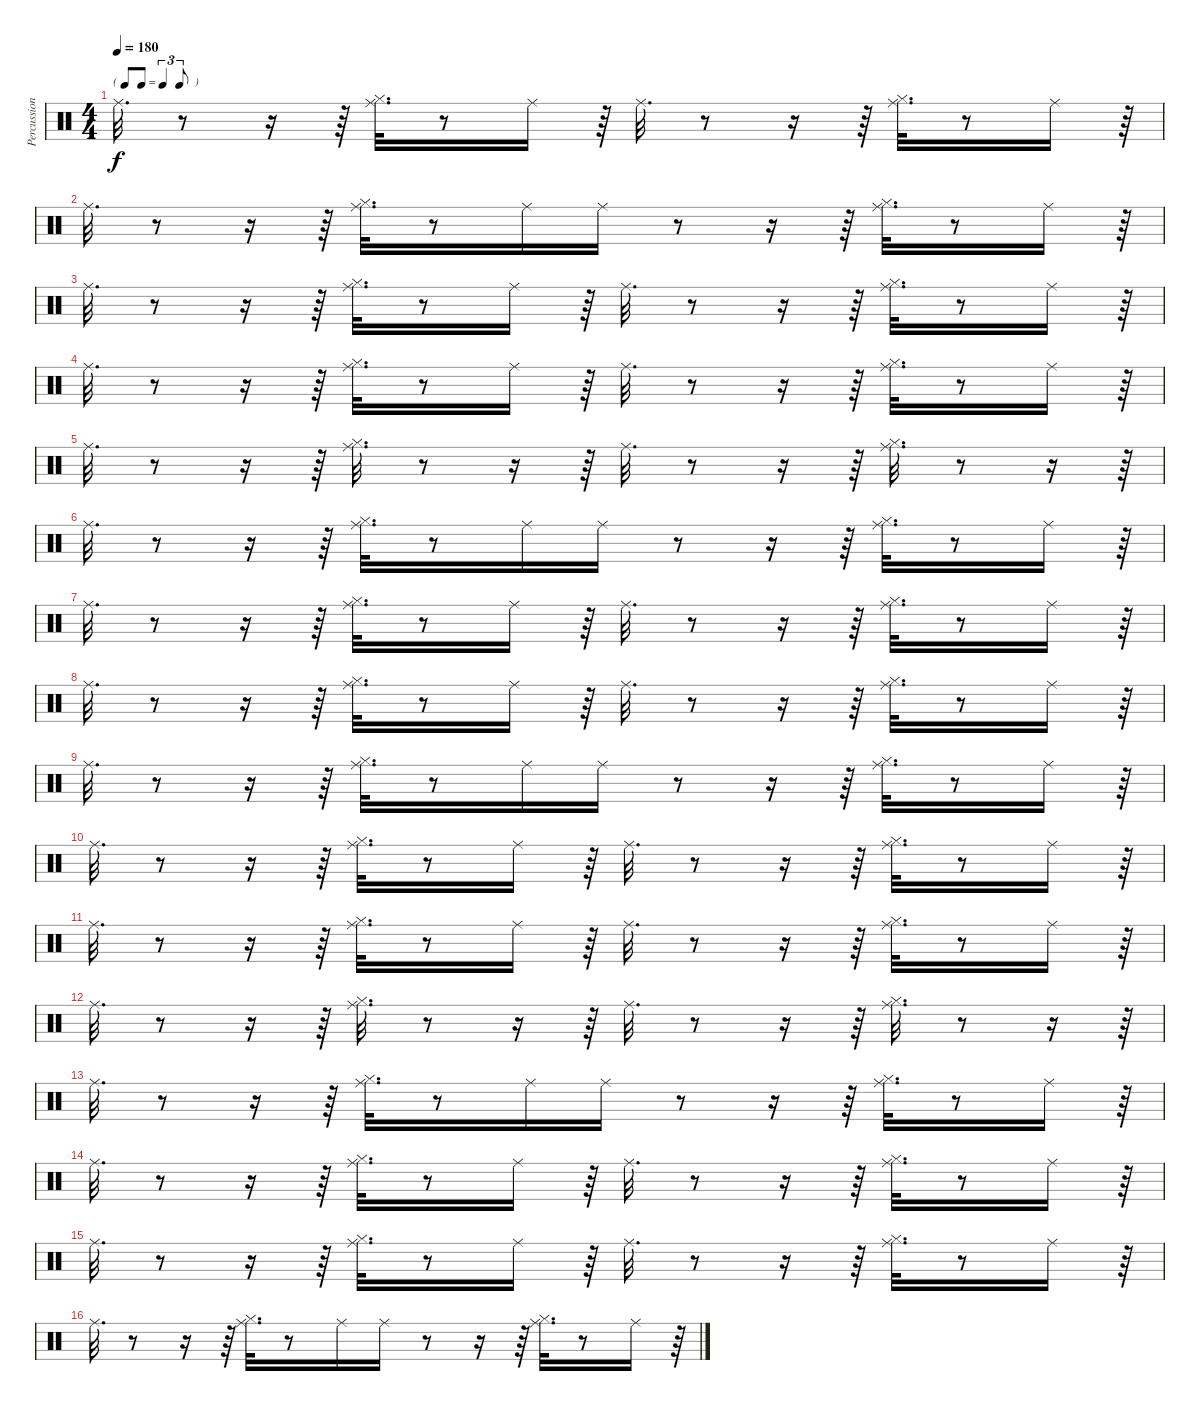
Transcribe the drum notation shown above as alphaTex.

\track ("Percussions" "Percussion") {instrument percussion}
\staff {score}
\articulation defaults
\ts (4 4)
\tf triplet8th
\tempo 180
\clef neutral
\ks c "Ride (middle)".32{d dy f}
r.8 r.16 r.64 ("Hi-Hat (closed)" "Ride (middle)").32{d} r.8 "Ride (middle)".16 r.64 "Ride (middle)".32{d} r.8 r.16 r.64 ("Hi-Hat (closed)" "Ride (middle)").32{d} r.8 "Ride (middle)".16 r.64 |
"Ride (middle)".32{d} r.8 r.16 r.64 ("Hi-Hat (closed)" "Ride (middle)").32{d} r.8 "Ride (middle)".16 "Ride (middle)".16 r.8 r.16 r.64 ("Hi-Hat (closed)" "Ride (middle)").32{d} r.8 "Ride (middle)".16 r.64 |
"Ride (middle)".32{d} r.8 r.16 r.64 ("Hi-Hat (closed)" "Ride (middle)").32{d} r.8 "Ride (middle)".16 r.64 "Ride (middle)".32{d} r.8 r.16 r.64 ("Hi-Hat (closed)" "Ride (middle)").32{d} r.8 "Ride (middle)".16 r.64 |
"Ride (middle)".32{d} r.8 r.16 r.64 ("Hi-Hat (closed)" "Ride (middle)").32{d} r.8 "Ride (middle)".16 r.64 "Ride (middle)".32{d} r.8 r.16 r.64 ("Hi-Hat (closed)" "Ride (middle)").32{d} r.8 "Ride (middle)".16 r.64 |
"Ride (middle)".32{d} r.8 r.16 r.64 ("Hi-Hat (closed)" "Ride (middle)").32{d} r.8 r.16 r.64 "Ride (middle)".32{d} r.8 r.16 r.64 ("Hi-Hat (closed)" "Ride (middle)").32{d} r.8 r.16 r.64 |
"Ride (middle)".32{d} r.8 r.16 r.64 ("Hi-Hat (closed)" "Ride (middle)").32{d} r.8 "Ride (middle)".16 "Ride (middle)".16 r.8 r.16 r.64 ("Hi-Hat (closed)" "Ride (middle)").32{d} r.8 "Ride (middle)".16 r.64 |
"Ride (middle)".32{d} r.8 r.16 r.64 ("Hi-Hat (closed)" "Ride (middle)").32{d} r.8 "Ride (middle)".16 r.64 "Ride (middle)".32{d} r.8 r.16 r.64 ("Hi-Hat (closed)" "Ride (middle)").32{d} r.8 "Ride (middle)".16 r.64 |
"Ride (middle)".32{d} r.8 r.16 r.64 ("Hi-Hat (closed)" "Ride (middle)").32{d} r.8 "Ride (middle)".16 r.64 "Ride (middle)".32{d} r.8 r.16 r.64 ("Hi-Hat (closed)" "Ride (middle)").32{d} r.8 "Ride (middle)".16 r.64 |
"Ride (middle)".32{d} r.8 r.16 r.64 ("Hi-Hat (closed)" "Ride (middle)").32{d} r.8 "Ride (middle)".16 "Ride (middle)".16 r.8 r.16 r.64 ("Hi-Hat (closed)" "Ride (middle)").32{d} r.8 "Ride (middle)".16 r.64 |
"Ride (middle)".32{d} r.8 r.16 r.64 ("Hi-Hat (closed)" "Ride (middle)").32{d} r.8 "Ride (middle)".16 r.64 "Ride (middle)".32{d} r.8 r.16 r.64 ("Hi-Hat (closed)" "Ride (middle)").32{d} r.8 "Ride (middle)".16 r.64 |
"Ride (middle)".32{d} r.8 r.16 r.64 ("Hi-Hat (closed)" "Ride (middle)").32{d} r.8 "Ride (middle)".16 r.64 "Ride (middle)".32{d} r.8 r.16 r.64 ("Hi-Hat (closed)" "Ride (middle)").32{d} r.8 "Ride (middle)".16 r.64 |
"Ride (middle)".32{d} r.8 r.16 r.64 ("Hi-Hat (closed)" "Ride (middle)").32{d} r.8 r.16 r.64 "Ride (middle)".32{d} r.8 r.16 r.64 ("Hi-Hat (closed)" "Ride (middle)").32{d} r.8 r.16 r.64 |
"Ride (middle)".32{d} r.8 r.16 r.64 ("Hi-Hat (closed)" "Ride (middle)").32{d} r.8 "Ride (middle)".16 "Ride (middle)".16 r.8 r.16 r.64 ("Hi-Hat (closed)" "Ride (middle)").32{d} r.8 "Ride (middle)".16 r.64 |
"Ride (middle)".32{d} r.8 r.16 r.64 ("Hi-Hat (closed)" "Ride (middle)").32{d} r.8 "Ride (middle)".16 r.64 "Ride (middle)".32{d} r.8 r.16 r.64 ("Hi-Hat (closed)" "Ride (middle)").32{d} r.8 "Ride (middle)".16 r.64 |
"Ride (middle)".32{d} r.8 r.16 r.64 ("Hi-Hat (closed)" "Ride (middle)").32{d} r.8 "Ride (middle)".16 r.64 "Ride (middle)".32{d} r.8 r.16 r.64 ("Hi-Hat (closed)" "Ride (middle)").32{d} r.8 "Ride (middle)".16 r.64 |
"Ride (middle)".32{d} r.8 r.16 r.64 ("Hi-Hat (closed)" "Ride (middle)").32{d} r.8 "Ride (middle)".16 "Ride (middle)".16 r.8 r.16 r.64 ("Hi-Hat (closed)" "Ride (middle)").32{d} r.8 "Ride (middle)".16 r.64
